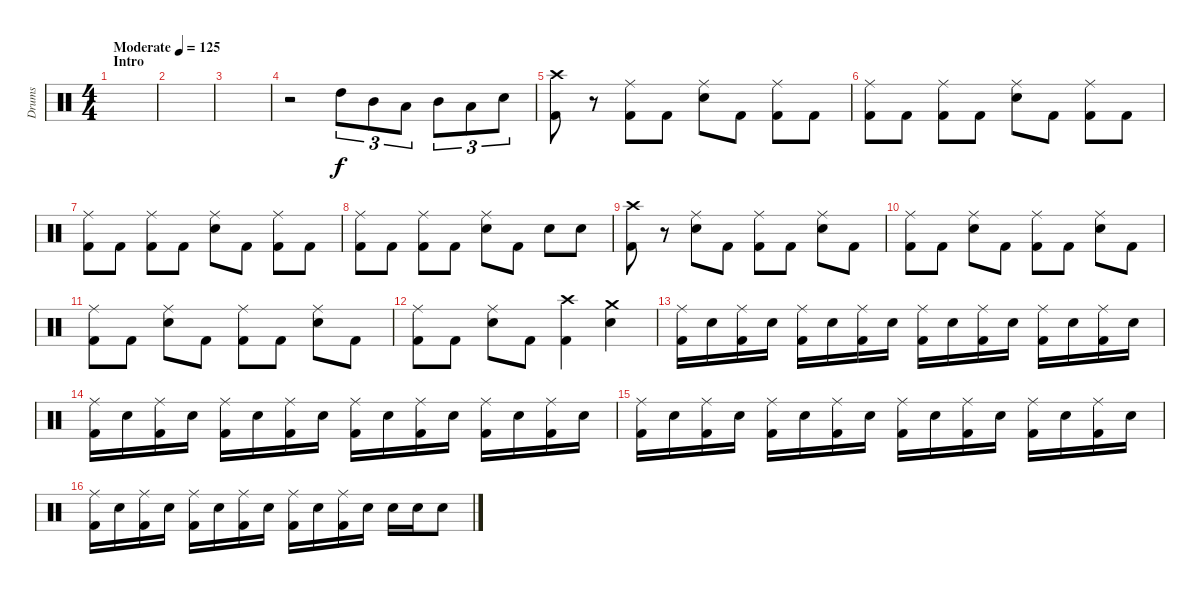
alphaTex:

\track ("Drums" "Drums") {instrument percussion}
\staff {score}
\articulation defaults
\ts (4 4)
\section ("" "Intro")
\tempo (125 "Moderate")
\clef neutral
\ks c
|
|
|
r.2 "High Tom (hit)".8{tu (3 2)} "Mid Tom (hit)".8{tu (3 2)} "Low Tom (hit)".8{tu (3 2)} "Mid Tom (hit)".8{tu (3 2)} "Low Tom (hit)".8{tu (3 2)} "Electric Snare (hit)".8{tu (3 2)} |
("Crash high (hit)" "Kick (hit) 2").8 r.8 ("Ride (middle)" "Kick (hit) 2").8 "Kick (hit) 2".8 ("Ride (middle)" "Electric Snare (hit)").8 "Kick (hit) 2".8 ("Ride (middle)" "Kick (hit) 2").8 "Kick (hit) 2".8 |
("Ride (middle)" "Kick (hit) 2").8 "Kick (hit) 2".8 ("Ride (middle)" "Kick (hit) 2").8 "Kick (hit) 2".8 ("Ride (middle)" "Electric Snare (hit)").8 "Kick (hit) 2".8 ("Ride (middle)" "Kick (hit) 2").8 "Kick (hit) 2".8 |
("Ride (middle)" "Kick (hit) 2").8 "Kick (hit) 2".8 ("Ride (middle)" "Kick (hit) 2").8 "Kick (hit) 2".8 ("Ride (middle)" "Electric Snare (hit)").8 "Kick (hit) 2".8 ("Ride (middle)" "Kick (hit) 2").8 "Kick (hit) 2".8 |
("Ride (middle)" "Kick (hit) 2").8 "Kick (hit) 2".8 ("Ride (middle)" "Kick (hit) 2").8 "Kick (hit) 2".8 ("Ride (middle)" "Electric Snare (hit)").8 "Kick (hit) 2".8 "Electric Snare (hit)".8 "Electric Snare (hit)".8 |
("Crash high (hit)" "Kick (hit) 2").8 r.8 ("Ride (middle)" "Electric Snare (hit)").8 "Kick (hit) 2".8 ("Ride (middle)" "Kick (hit) 2").8 "Kick (hit) 2".8 ("Ride (middle)" "Electric Snare (hit)").8 "Kick (hit) 2".8 |
("Ride (middle)" "Kick (hit) 2").8 "Kick (hit) 2".8 ("Ride (middle)" "Electric Snare (hit)").8 "Kick (hit) 2".8 ("Ride (middle)" "Kick (hit) 2").8 "Kick (hit) 2".8 ("Ride (middle)" "Electric Snare (hit)").8 "Kick (hit) 2".8 |
("Ride (middle)" "Kick (hit) 2").8 "Kick (hit) 2".8 ("Ride (middle)" "Electric Snare (hit)").8 "Kick (hit) 2".8 ("Ride (middle)" "Kick (hit) 2").8 "Kick (hit) 2".8 ("Ride (middle)" "Electric Snare (hit)").8 "Kick (hit) 2".8 |
("Ride (middle)" "Kick (hit) 2").8 "Kick (hit) 2".8 ("Ride (middle)" "Electric Snare (hit)").8 "Kick (hit) 2".8 ("Crash high (hit)" "Kick (hit) 2").4 ("Crash medium (hit)" "Electric Snare (hit)").4 |
("Ride (middle)" "Kick (hit) 2").16 "Electric Snare (hit)".16 ("Ride (middle)" "Kick (hit) 2").16 "Electric Snare (hit)".16 ("Ride (middle)" "Kick (hit) 2").16 "Electric Snare (hit)".16 ("Ride (middle)" "Kick (hit) 2").16 "Electric Snare (hit)".16 ("Ride (middle)" "Kick (hit) 2").16 "Electric Snare (hit)".16 ("Ride (middle)" "Kick (hit) 2").16 "Electric Snare (hit)".16 ("Ride (middle)" "Kick (hit) 2").16 "Electric Snare (hit)".16 ("Ride (middle)" "Kick (hit) 2").16 "Electric Snare (hit)".16 |
("Ride (middle)" "Kick (hit) 2").16 "Electric Snare (hit)".16 ("Ride (middle)" "Kick (hit) 2").16 "Electric Snare (hit)".16 ("Ride (middle)" "Kick (hit) 2").16 "Electric Snare (hit)".16 ("Ride (middle)" "Kick (hit) 2").16 "Electric Snare (hit)".16 ("Ride (middle)" "Kick (hit) 2").16 "Electric Snare (hit)".16 ("Ride (middle)" "Kick (hit) 2").16 "Electric Snare (hit)".16 ("Ride (middle)" "Kick (hit) 2").16 "Electric Snare (hit)".16 ("Ride (middle)" "Kick (hit) 2").16 "Electric Snare (hit)".16 |
("Ride (middle)" "Kick (hit) 2").16 "Electric Snare (hit)".16 ("Ride (middle)" "Kick (hit) 2").16 "Electric Snare (hit)".16 ("Ride (middle)" "Kick (hit) 2").16 "Electric Snare (hit)".16 ("Ride (middle)" "Kick (hit) 2").16 "Electric Snare (hit)".16 ("Ride (middle)" "Kick (hit) 2").16 "Electric Snare (hit)".16 ("Ride (middle)" "Kick (hit) 2").16 "Electric Snare (hit)".16 ("Ride (middle)" "Kick (hit) 2").16 "Electric Snare (hit)".16 ("Ride (middle)" "Kick (hit) 2").16 "Electric Snare (hit)".16 |
("Ride (middle)" "Kick (hit) 2").16 "Electric Snare (hit)".16 ("Ride (middle)" "Kick (hit) 2").16 "Electric Snare (hit)".16 ("Ride (middle)" "Kick (hit) 2").16 "Electric Snare (hit)".16 ("Ride (middle)" "Kick (hit) 2").16 "Electric Snare (hit)".16 ("Ride (middle)" "Kick (hit) 2").16 "Electric Snare (hit)".16 ("Ride (middle)" "Kick (hit) 2").16 "Electric Snare (hit)".16 "Electric Snare (hit)".16 "Electric Snare (hit)".16 "Electric Snare (hit)".8
